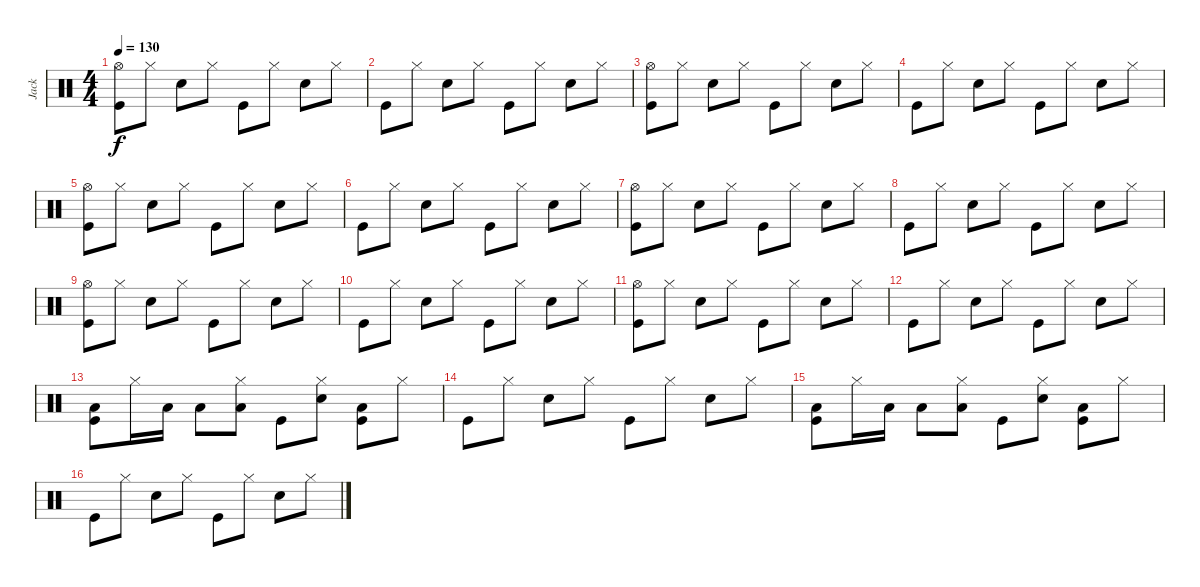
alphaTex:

\track ("Jack" "Jack") {instrument percussion}
\staff {score}
\articulation defaults
\ts (4 4)
\tempo 130
\clef neutral
\ks c
("Hi-Hat (open)" "Kick (hit)").8{dy f} "Hi-Hat (closed)".8 "Electric Snare (hit)".8 "Hi-Hat (closed)".8 "Kick (hit)".8 "Hi-Hat (closed)".8 "Electric Snare (hit)".8 "Hi-Hat (closed)".8 |
"Kick (hit)".8 "Hi-Hat (closed)".8 "Electric Snare (hit)".8 "Hi-Hat (closed)".8 "Kick (hit)".8 "Hi-Hat (closed)".8 "Electric Snare (hit)".8 "Hi-Hat (closed)".8 |
("Hi-Hat (open)" "Kick (hit)").8 "Hi-Hat (closed)".8 "Electric Snare (hit)".8 "Hi-Hat (closed)".8 "Kick (hit)".8 "Hi-Hat (closed)".8 "Electric Snare (hit)".8 "Hi-Hat (closed)".8 |
"Kick (hit)".8 "Hi-Hat (closed)".8 "Electric Snare (hit)".8 "Hi-Hat (closed)".8 "Kick (hit)".8 "Hi-Hat (closed)".8 "Electric Snare (hit)".8 "Hi-Hat (closed)".8 |
("Hi-Hat (open)" "Kick (hit)").8 "Hi-Hat (closed)".8 "Electric Snare (hit)".8 "Hi-Hat (closed)".8 "Kick (hit)".8 "Hi-Hat (closed)".8 "Electric Snare (hit)".8 "Hi-Hat (closed)".8 |
"Kick (hit)".8 "Hi-Hat (closed)".8 "Electric Snare (hit)".8 "Hi-Hat (closed)".8 "Kick (hit)".8 "Hi-Hat (closed)".8 "Electric Snare (hit)".8 "Hi-Hat (closed)".8 |
("Hi-Hat (open)" "Kick (hit)").8 "Hi-Hat (closed)".8 "Electric Snare (hit)".8 "Hi-Hat (closed)".8 "Kick (hit)".8 "Hi-Hat (closed)".8 "Electric Snare (hit)".8 "Hi-Hat (closed)".8 |
"Kick (hit)".8 "Hi-Hat (closed)".8 "Electric Snare (hit)".8 "Hi-Hat (closed)".8 "Kick (hit)".8 "Hi-Hat (closed)".8 "Electric Snare (hit)".8 "Hi-Hat (closed)".8 |
("Hi-Hat (open)" "Kick (hit)").8 "Hi-Hat (closed)".8 "Electric Snare (hit)".8 "Hi-Hat (closed)".8 "Kick (hit)".8 "Hi-Hat (closed)".8 "Electric Snare (hit)".8 "Hi-Hat (closed)".8 |
"Kick (hit)".8 "Hi-Hat (closed)".8 "Electric Snare (hit)".8 "Hi-Hat (closed)".8 "Kick (hit)".8 "Hi-Hat (closed)".8 "Electric Snare (hit)".8 "Hi-Hat (closed)".8 |
("Hi-Hat (open)" "Kick (hit)").8 "Hi-Hat (closed)".8 "Electric Snare (hit)".8 "Hi-Hat (closed)".8 "Kick (hit)".8 "Hi-Hat (closed)".8 "Electric Snare (hit)".8 "Hi-Hat (closed)".8 |
"Kick (hit)".8 "Hi-Hat (closed)".8 "Electric Snare (hit)".8 "Hi-Hat (closed)".8 "Kick (hit)".8 "Hi-Hat (closed)".8 "Electric Snare (hit)".8 "Hi-Hat (closed)".8 |
("Low Floor Tom (hit)" "Kick (hit)").8 "Hi-Hat (closed)".16 "Low Floor Tom (hit)".16 "Low Floor Tom (hit)".8 ("Hi-Hat (closed)" "Low Floor Tom (hit)").8 "Kick (hit)".8 ("Hi-Hat (closed)" "Electric Snare (hit)").8 ("Low Floor Tom (hit)" "Kick (hit)").8 "Hi-Hat (closed)".8 |
"Kick (hit)".8 "Hi-Hat (closed)".8 "Electric Snare (hit)".8 "Hi-Hat (closed)".8 "Kick (hit)".8 "Hi-Hat (closed)".8 "Electric Snare (hit)".8 "Hi-Hat (closed)".8 |
("Low Floor Tom (hit)" "Kick (hit)").8 "Hi-Hat (closed)".16 "Low Floor Tom (hit)".16 "Low Floor Tom (hit)".8 ("Hi-Hat (closed)" "Low Floor Tom (hit)").8 "Kick (hit)".8 ("Hi-Hat (closed)" "Electric Snare (hit)").8 ("Low Floor Tom (hit)" "Kick (hit)").8 "Hi-Hat (closed)".8 |
"Kick (hit)".8 "Hi-Hat (closed)".8 "Electric Snare (hit)".8 "Hi-Hat (closed)".8 "Kick (hit)".8 "Hi-Hat (closed)".8 "Electric Snare (hit)".8 "Hi-Hat (closed)".8
